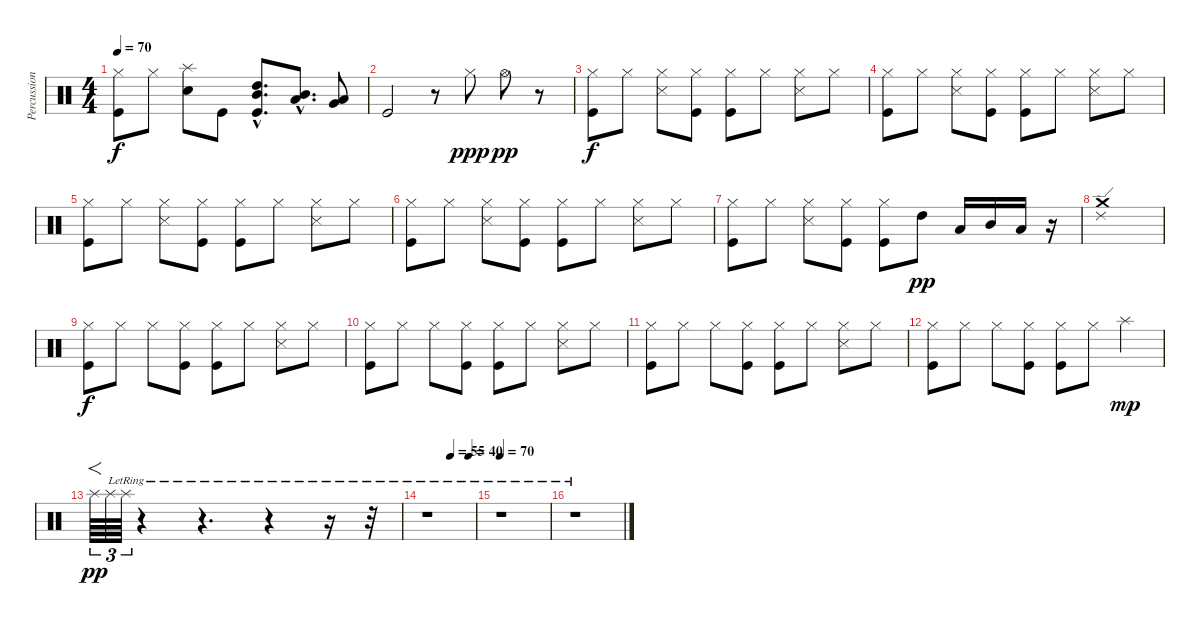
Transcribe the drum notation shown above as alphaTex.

\track ("Percussions" "Percussion") {instrument percussion}
\staff {score}
\articulation defaults
\ts (4 4)
\tempo 70
\clef neutral
\ks c
("Kick (hit)" "Hi-Hat (closed)").8{dy f} "Hi-Hat (closed)".8 ("Snare (hit) 2" "Splash (hit)").8 "Kick (hit)".8 ("Kick (hit)"{hac} "Mid Tom (hit)"{hac} "High Tom (hit)"{hac}).8{d} ("Low Tom (hit)"{hac} "Mid Tom (hit)"{hac}).8{d} ("Low Floor Tom (hit)" "Very Low Tom (hit)").8 |
"Kick (hit)".2 r.8 "Hi-Hat (closed)".8{dy ppp} "Hi-Hat (open)".8{dy pp} r.8 |
("Kick (hit)" "Hi-Hat (closed)").8{dy f} "Hi-Hat (closed)".8 ("Snare (side stick) 3" "Hi-Hat (closed)").8 ("Kick (hit)" "Hi-Hat (closed)").8 ("Kick (hit)" "Hi-Hat (closed)").8 "Hi-Hat (closed)".8 ("Snare (side stick) 3" "Hi-Hat (closed)").8 "Hi-Hat (closed)".8 |
("Kick (hit)" "Hi-Hat (closed)").8 "Hi-Hat (closed)".8 ("Snare (side stick) 3" "Hi-Hat (closed)").8 ("Kick (hit)" "Hi-Hat (closed)").8 ("Kick (hit)" "Hi-Hat (closed)").8 "Hi-Hat (closed)".8 ("Snare (side stick) 3" "Hi-Hat (closed)").8 "Hi-Hat (closed)".8 |
("Kick (hit)" "Hi-Hat (closed)").8 "Hi-Hat (closed)".8 ("Snare (side stick) 3" "Hi-Hat (closed)").8 ("Kick (hit)" "Hi-Hat (closed)").8 ("Kick (hit)" "Hi-Hat (closed)").8 "Hi-Hat (closed)".8 ("Snare (side stick) 3" "Hi-Hat (closed)").8 "Hi-Hat (closed)".8 |
("Kick (hit)" "Hi-Hat (closed)").8 "Hi-Hat (closed)".8 ("Snare (side stick) 3" "Hi-Hat (closed)").8 ("Kick (hit)" "Hi-Hat (closed)").8 ("Kick (hit)" "Hi-Hat (closed)").8 "Hi-Hat (closed)".8 ("Snare (side stick) 3" "Hi-Hat (closed)").8 "Hi-Hat (closed)".8 |
("Kick (hit)" "Hi-Hat (closed)").8 "Hi-Hat (closed)".8 ("Snare (side stick) 3" "Hi-Hat (closed)").8 ("Kick (hit)" "Hi-Hat (closed)").8 ("Kick (hit)" "Hi-Hat (closed)").8 "High Tom (hit)".8{dy pp} "Low Tom (hit)".16 "Mid Tom (hit)".16 "Low Tom (hit)".16 r.16 |
("Ride (edge) 2" "Crash medium (hit)").1 |
("Kick (hit)" "Hi-Hat (closed)").8{dy f} "Hi-Hat (closed)".8 "Hi-Hat (closed)".8 ("Kick (hit)" "Hi-Hat (closed)").8 ("Kick (hit)" "Hi-Hat (closed)").8 "Hi-Hat (closed)".8 ("Snare (side stick) 3" "Hi-Hat (closed)").8 "Hi-Hat (closed)".8 |
("Kick (hit)" "Hi-Hat (closed)").8 "Hi-Hat (closed)".8 "Hi-Hat (closed)".8 ("Kick (hit)" "Hi-Hat (closed)").8 ("Kick (hit)" "Hi-Hat (closed)").8 "Hi-Hat (closed)".8 ("Snare (side stick) 3" "Hi-Hat (closed)").8 "Hi-Hat (closed)".8 |
("Kick (hit)" "Hi-Hat (closed)").8 "Hi-Hat (closed)".8 "Hi-Hat (closed)".8 ("Kick (hit)" "Hi-Hat (closed)").8 ("Kick (hit)" "Hi-Hat (closed)").8 "Hi-Hat (closed)".8 ("Snare (side stick) 3" "Hi-Hat (closed)").8 "Hi-Hat (closed)".8 |
("Kick (hit)" "Hi-Hat (closed)").8 "Hi-Hat (closed)".8 "Hi-Hat (closed)".8 ("Kick (hit)" "Hi-Hat (closed)").8 ("Kick (hit)" "Hi-Hat (closed)").8 "Hi-Hat (closed)".8 "Splash (hit)".4{dy mp} |
"Splash (hit)".64{f tu (3 2) dy pp} "Splash (hit)".64{tu (3 2)} "Splash (hit)"{lr}.64{tu (3 2)} r.4 r.4{d} r.4 r.16 r.32 |
\tempo (55 0.5)
\tempo (40 0.875)
r.1 |
\tempo 70
r.1 |
r.1
